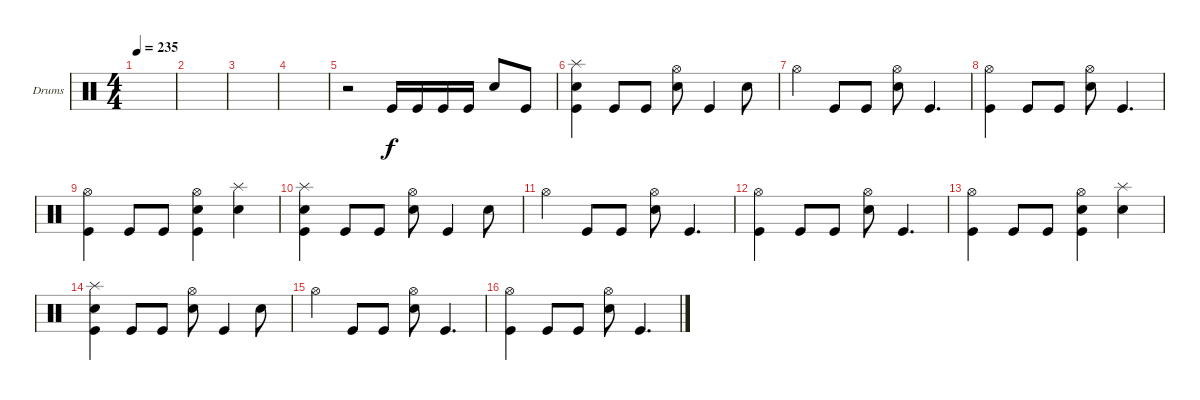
\defaultSystemsLayout 4
\bracketExtendMode groupsimilarinstruments
\firstSystemTrackNameOrientation horizontal
\otherSystemsTrackNameOrientation horizontal
\track ("Drumkit" "Drums") {instrument percussion}
\staff {score}
\articulation defaults
\ts (4 4)
\tempo 235
\clef neutral
\ks c
|
|
|
|
r.2 "Kick (hit)".16 "Kick (hit)".16 "Kick (hit)".16 "Kick (hit)".16 "Snare (hit) 2".8 "Kick (hit)".8 |
("Kick (hit)" "Snare (hit) 2" "Splash (hit)").4 "Kick (hit)".8 "Kick (hit)".8 ("Snare (hit) 2" "Hi-Hat (open)").8 "Kick (hit)".4 "Snare (hit) 2".8 |
"Hi-Hat (open)".4 "Kick (hit)".8 "Kick (hit)".8 ("Snare (hit) 2" "Hi-Hat (open)").8 "Kick (hit)".4{d} |
("Hi-Hat (open)" "Kick (hit)").4 "Kick (hit)".8 "Kick (hit)".8 ("Snare (hit) 2" "Hi-Hat (open)").8 "Kick (hit)".4{d} |
("Hi-Hat (open)" "Kick (hit)").4 "Kick (hit)".8 "Kick (hit)".8 ("Snare (hit) 2" "Hi-Hat (open)" "Kick (hit)").4 ("Snare (hit) 2" "Splash (hit)").4 |
("Kick (hit)" "Snare (hit) 2" "Splash (hit)").4 "Kick (hit)".8 "Kick (hit)".8 ("Snare (hit) 2" "Hi-Hat (open)").8 "Kick (hit)".4 "Snare (hit) 2".8 |
"Hi-Hat (open)".4 "Kick (hit)".8 "Kick (hit)".8 ("Snare (hit) 2" "Hi-Hat (open)").8 "Kick (hit)".4{d} |
("Hi-Hat (open)" "Kick (hit)").4 "Kick (hit)".8 "Kick (hit)".8 ("Snare (hit) 2" "Hi-Hat (open)").8 "Kick (hit)".4{d} |
("Hi-Hat (open)" "Kick (hit)").4 "Kick (hit)".8 "Kick (hit)".8 ("Snare (hit) 2" "Hi-Hat (open)" "Kick (hit)").4 ("Snare (hit) 2" "Splash (hit)").4 |
("Kick (hit)" "Snare (hit) 2" "Splash (hit)").4 "Kick (hit)".8 "Kick (hit)".8 ("Snare (hit) 2" "Hi-Hat (open)").8 "Kick (hit)".4 "Snare (hit) 2".8 |
"Hi-Hat (open)".4 "Kick (hit)".8 "Kick (hit)".8 ("Snare (hit) 2" "Hi-Hat (open)").8 "Kick (hit)".4{d} |
("Hi-Hat (open)" "Kick (hit)").4 "Kick (hit)".8 "Kick (hit)".8 ("Snare (hit) 2" "Hi-Hat (open)").8 "Kick (hit)".4{d}
